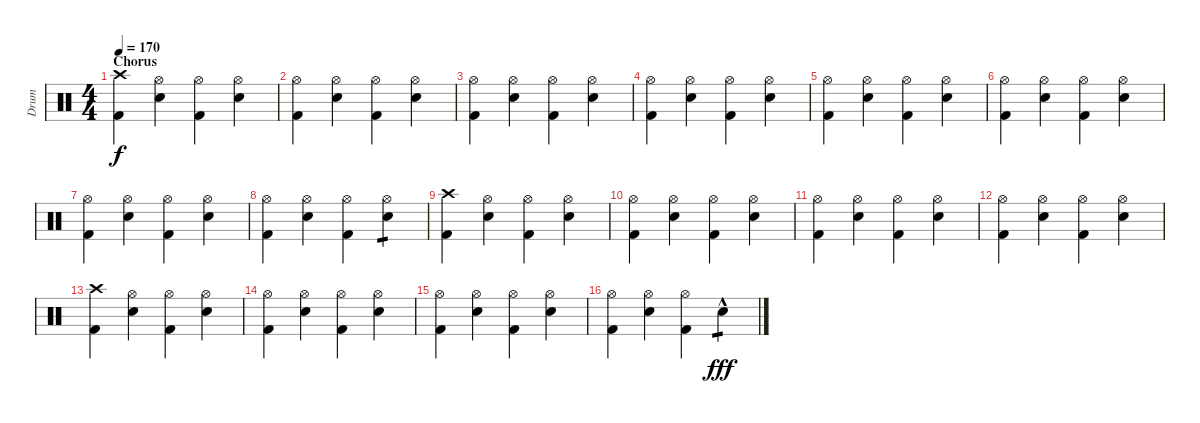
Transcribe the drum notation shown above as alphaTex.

\track ("Drum" "Drum") {instrument percussion}
\staff {score}
\articulation defaults
\ts (4 4)
\section ("" "Chorus")
\tempo 170
\clef neutral
\ks c
("Crash high (hit)" "Kick (hit) 2").4{dy f} ("Hi-Hat (open)" "Electric Snare (hit)").4 ("Hi-Hat (open)" "Kick (hit) 2").4 ("Hi-Hat (open)" "Electric Snare (hit)").4 |
("Hi-Hat (open)" "Kick (hit) 2").4 ("Hi-Hat (open)" "Electric Snare (hit)").4 ("Hi-Hat (open)" "Kick (hit) 2").4 ("Hi-Hat (open)" "Electric Snare (hit)").4 |
("Hi-Hat (open)" "Kick (hit) 2").4 ("Hi-Hat (open)" "Electric Snare (hit)").4 ("Hi-Hat (open)" "Kick (hit) 2").4 ("Hi-Hat (open)" "Electric Snare (hit)").4 |
("Hi-Hat (open)" "Kick (hit) 2").4 ("Hi-Hat (open)" "Electric Snare (hit)").4 ("Hi-Hat (open)" "Kick (hit) 2").4 ("Hi-Hat (open)" "Electric Snare (hit)").4 |
("Hi-Hat (open)" "Kick (hit) 2").4 ("Hi-Hat (open)" "Electric Snare (hit)").4 ("Hi-Hat (open)" "Kick (hit) 2").4 ("Hi-Hat (open)" "Electric Snare (hit)").4 |
("Hi-Hat (open)" "Kick (hit) 2").4 ("Hi-Hat (open)" "Electric Snare (hit)").4 ("Hi-Hat (open)" "Kick (hit) 2").4 ("Hi-Hat (open)" "Electric Snare (hit)").4 |
("Hi-Hat (open)" "Kick (hit) 2").4 ("Hi-Hat (open)" "Electric Snare (hit)").4 ("Hi-Hat (open)" "Kick (hit) 2").4 ("Hi-Hat (open)" "Electric Snare (hit)").4 |
("Hi-Hat (open)" "Kick (hit) 2").4 ("Hi-Hat (open)" "Electric Snare (hit)").4 ("Hi-Hat (open)" "Kick (hit) 2").4 ("Hi-Hat (open)" "Electric Snare (hit)").4{tp 1} |
("Crash high (hit)" "Kick (hit) 2").4 ("Hi-Hat (open)" "Electric Snare (hit)").4 ("Hi-Hat (open)" "Kick (hit) 2").4 ("Hi-Hat (open)" "Electric Snare (hit)").4 |
("Hi-Hat (open)" "Kick (hit) 2").4 ("Hi-Hat (open)" "Electric Snare (hit)").4 ("Hi-Hat (open)" "Kick (hit) 2").4 ("Hi-Hat (open)" "Electric Snare (hit)").4 |
("Hi-Hat (open)" "Kick (hit) 2").4 ("Hi-Hat (open)" "Electric Snare (hit)").4 ("Hi-Hat (open)" "Kick (hit) 2").4 ("Hi-Hat (open)" "Electric Snare (hit)").4 |
("Hi-Hat (open)" "Kick (hit) 2").4 ("Hi-Hat (open)" "Electric Snare (hit)").4 ("Hi-Hat (open)" "Kick (hit) 2").4 ("Hi-Hat (open)" "Electric Snare (hit)").4 |
("Crash high (hit)" "Kick (hit) 2").4 ("Hi-Hat (open)" "Electric Snare (hit)").4 ("Hi-Hat (open)" "Kick (hit) 2").4 ("Hi-Hat (open)" "Electric Snare (hit)").4 |
("Hi-Hat (open)" "Kick (hit) 2").4 ("Hi-Hat (open)" "Electric Snare (hit)").4 ("Hi-Hat (open)" "Kick (hit) 2").4 ("Hi-Hat (open)" "Electric Snare (hit)").4 |
("Hi-Hat (open)" "Kick (hit) 2").4 ("Hi-Hat (open)" "Electric Snare (hit)").4 ("Hi-Hat (open)" "Kick (hit) 2").4 ("Hi-Hat (open)" "Electric Snare (hit)").4 |
("Hi-Hat (open)" "Kick (hit) 2").4 ("Hi-Hat (open)" "Electric Snare (hit)").4 ("Hi-Hat (open)" "Kick (hit) 2").4 "Electric Snare (hit)"{hac}.4{tp 1 dy fff}
